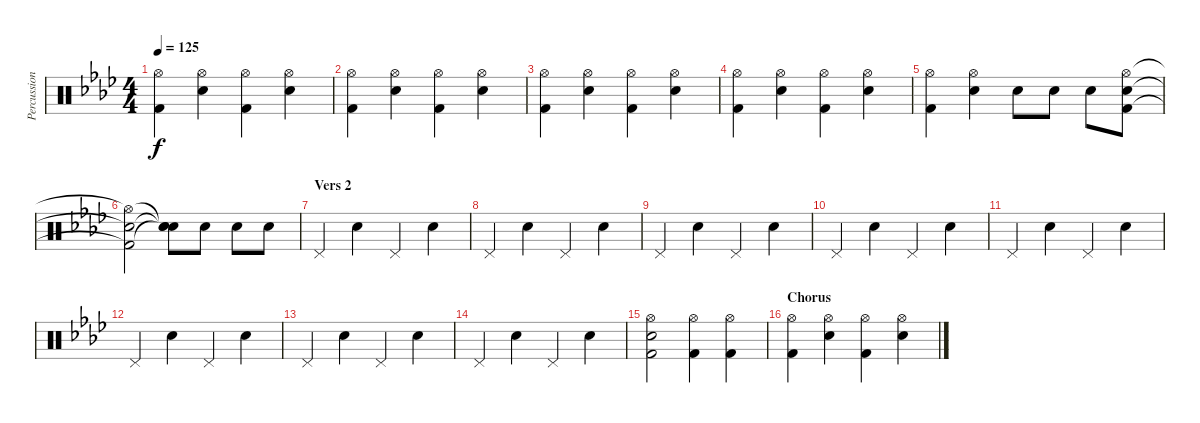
\track ("Percussion" "Percussion") {instrument percussion}
\staff {score}
\articulation defaults
\ts (4 4)
\tempo 125
\clef neutral
\ks fminor
("Hi-Hat (open)" "Kick (hit) 2").4{dy f} ("Hi-Hat (open)" "Snare (hit) 2").4 ("Hi-Hat (open)" "Kick (hit) 2").4 ("Hi-Hat (open)" "Snare (hit) 2").4 |
("Hi-Hat (open)" "Kick (hit) 2").4 ("Hi-Hat (open)" "Snare (hit) 2").4 ("Hi-Hat (open)" "Kick (hit) 2").4 ("Hi-Hat (open)" "Snare (hit) 2").4 |
("Hi-Hat (open)" "Kick (hit) 2").4 ("Hi-Hat (open)" "Snare (hit) 2").4 ("Hi-Hat (open)" "Kick (hit) 2").4 ("Hi-Hat (open)" "Snare (hit) 2").4 |
("Hi-Hat (open)" "Kick (hit) 2").4 ("Hi-Hat (open)" "Snare (hit) 2").4 ("Hi-Hat (open)" "Kick (hit) 2").4 ("Hi-Hat (open)" "Snare (hit) 2").4 |
("Hi-Hat (open)" "Kick (hit) 2").4 ("Hi-Hat (open)" "Snare (hit) 2").4 "Snare (hit) 2".8 "Snare (hit) 2".8 "Snare (hit) 2".8 ("Hi-Hat (open)" "Snare (hit) 2" "Kick (hit) 2").8 |
("Hi-Hat (open)"{t} "Snare (hit)"{t} "Kick (hit) 2"{t}).2 ("Snare (hit)"{t} "Snare (hit)"{t} "Snare (hit)"{t}).8 "Snare (hit) 2".8 "Snare (hit) 2".8 "Snare (hit) 2".8 |
\section ("" "Vers 2")
"Pedal Hi-Hat (hit)".4 "Snare (hit) 2".4 "Pedal Hi-Hat (hit)".4 "Snare (hit) 2".4 |
"Pedal Hi-Hat (hit)".4 "Snare (hit) 2".4 "Pedal Hi-Hat (hit)".4 "Snare (hit) 2".4 |
"Pedal Hi-Hat (hit)".4 "Snare (hit) 2".4 "Pedal Hi-Hat (hit)".4 "Snare (hit) 2".4 |
"Pedal Hi-Hat (hit)".4 "Snare (hit) 2".4 "Pedal Hi-Hat (hit)".4 "Snare (hit) 2".4 |
"Pedal Hi-Hat (hit)".4 "Snare (hit) 2".4 "Pedal Hi-Hat (hit)".4 "Snare (hit) 2".4 |
"Pedal Hi-Hat (hit)".4 "Snare (hit) 2".4 "Pedal Hi-Hat (hit)".4 "Snare (hit) 2".4 |
"Pedal Hi-Hat (hit)".4 "Snare (hit) 2".4 "Pedal Hi-Hat (hit)".4 "Snare (hit) 2".4 |
"Pedal Hi-Hat (hit)".4 "Snare (hit) 2".4 "Pedal Hi-Hat (hit)".4 "Snare (hit) 2".4 |
("Hi-Hat (open)" "Snare (hit) 2" "Kick (hit) 2").2 ("Hi-Hat (open)" "Kick (hit) 2").4 ("Hi-Hat (open)" "Kick (hit) 2").4 |
\section ("" "Chorus")
("Hi-Hat (open)" "Kick (hit) 2").4 ("Hi-Hat (open)" "Snare (hit) 2").4 ("Hi-Hat (open)" "Kick (hit) 2").4 ("Hi-Hat (open)" "Snare (hit) 2").4
